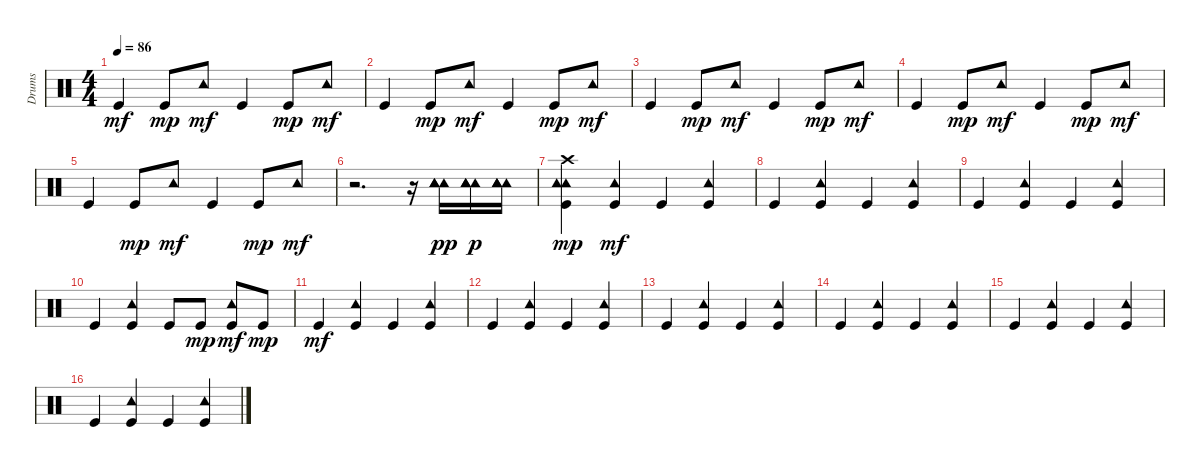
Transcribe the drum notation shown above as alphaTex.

\track ("Drums" "Drums") {instrument percussion}
\staff {score}
\articulation defaults
\ts (4 4)
\tempo 86
\clef neutral
\ks c "Kick (hit)".4{dy mf} "Kick (hit)".8{dy mp} "Tambourine (hit)".8{dy mf} "Kick (hit)".4 "Kick (hit)".8{dy mp} "Tambourine (hit)".8{dy mf}
|
"Kick (hit)".4 "Kick (hit)".8{dy mp} "Tambourine (hit)".8{dy mf} "Kick (hit)".4 "Kick (hit)".8{dy mp} "Tambourine (hit)".8{dy mf} |
"Kick (hit)".4 "Kick (hit)".8{dy mp} "Tambourine (hit)".8{dy mf} "Kick (hit)".4 "Kick (hit)".8{dy mp} "Tambourine (hit)".8{dy mf} |
"Kick (hit)".4 "Kick (hit)".8{dy mp} "Tambourine (hit)".8{dy mf} "Kick (hit)".4 "Kick (hit)".8{dy mp} "Tambourine (hit)".8{dy mf} |
"Kick (hit)".4 "Kick (hit)".8{dy mp} "Tambourine (hit)".8{dy mf} "Kick (hit)".4 "Kick (hit)".8{dy mp} "Tambourine (hit)".8{dy mf} |
r.2{d} r.16 ("Tambourine (hit)" "Tambourine (hit)" "Tambourine (hit)" "Tambourine (hit)").16{dy pp} ("Tambourine (hit)" "Tambourine (hit)" "Tambourine (hit)" "Tambourine (hit)").16{dy p} ("Tambourine (hit)" "Tambourine (hit)" "Tambourine (hit)" "Tambourine (hit)").16 |
("Tambourine (hit)" "Tambourine (hit)" "Kick (hit)" "Crash high (hit)").4{dy mp} ("Kick (hit)" "Tambourine (hit)").4{dy mf} "Kick (hit)".4 ("Kick (hit)" "Tambourine (hit)").4 |
"Kick (hit)".4 ("Kick (hit)" "Tambourine (hit)").4 "Kick (hit)".4 ("Kick (hit)" "Tambourine (hit)").4 |
"Kick (hit)".4 ("Kick (hit)" "Tambourine (hit)").4 "Kick (hit)".4 ("Kick (hit)" "Tambourine (hit)").4 |
"Kick (hit)".4 ("Kick (hit)" "Tambourine (hit)").4 "Kick (hit)".8 "Kick (hit)".8{dy mp} ("Kick (hit)" "Tambourine (hit)").8{dy mf} "Kick (hit)".8{dy mp} |
"Kick (hit)".4{dy mf} ("Kick (hit)" "Tambourine (hit)").4 "Kick (hit)".4 ("Kick (hit)" "Tambourine (hit)").4 |
"Kick (hit)".4 ("Kick (hit)" "Tambourine (hit)").4 "Kick (hit)".4 ("Kick (hit)" "Tambourine (hit)").4 |
"Kick (hit)".4 ("Kick (hit)" "Tambourine (hit)").4 "Kick (hit)".4 ("Kick (hit)" "Tambourine (hit)").4 |
"Kick (hit)".4 ("Kick (hit)" "Tambourine (hit)").4 "Kick (hit)".4 ("Kick (hit)" "Tambourine (hit)").4 |
"Kick (hit)".4 ("Kick (hit)" "Tambourine (hit)").4 "Kick (hit)".4 ("Kick (hit)" "Tambourine (hit)").4 |
"Kick (hit)".4 ("Kick (hit)" "Tambourine (hit)").4 "Kick (hit)".4 ("Kick (hit)" "Tambourine (hit)").4
